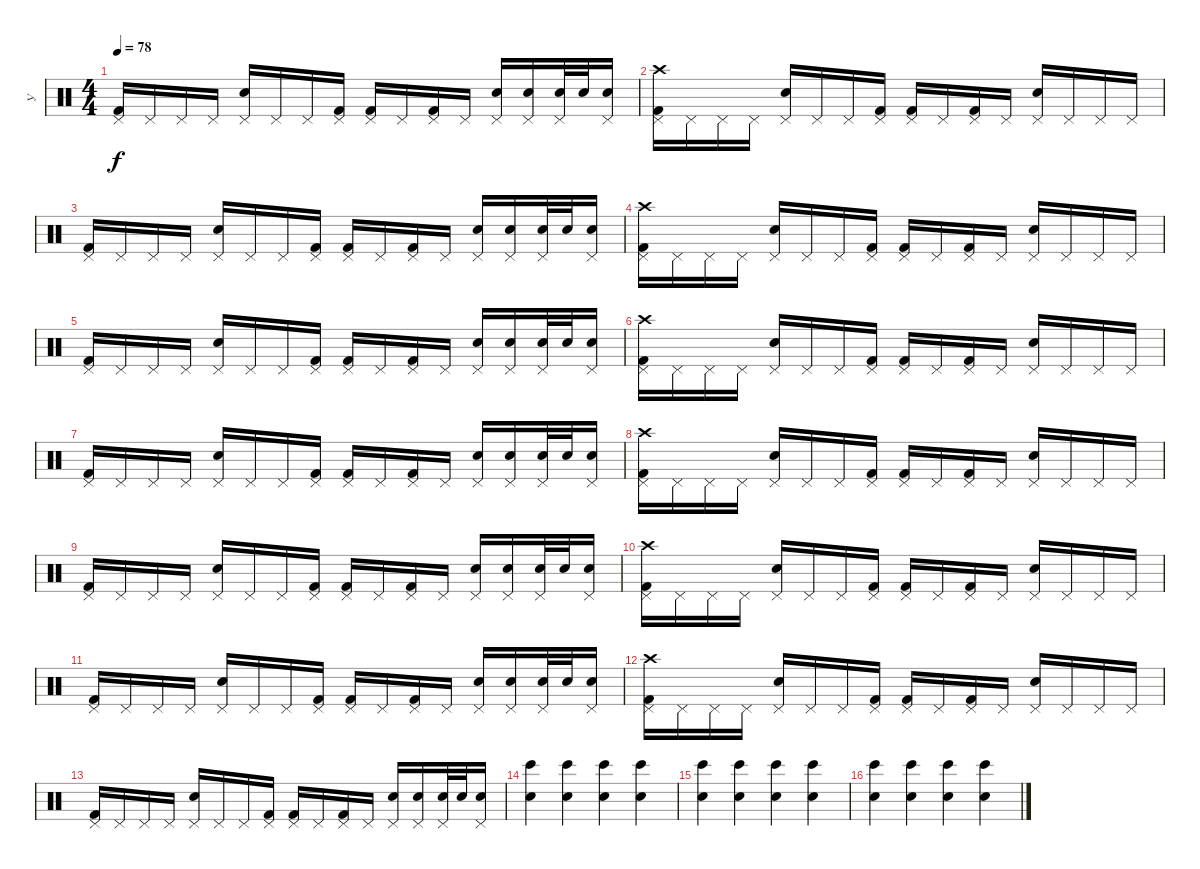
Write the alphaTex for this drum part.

\track ("У" "У") {instrument percussion}
\staff {score}
\articulation defaults
\ts (4 4)
\tempo 78
\clef neutral
\ks c
("Kick (hit) 2" "Pedal Hi-Hat (hit)").16{dy f} "Pedal Hi-Hat (hit)".16 "Pedal Hi-Hat (hit)".16 "Pedal Hi-Hat (hit)".16 ("Electric Snare (hit)" "Pedal Hi-Hat (hit)").16 "Pedal Hi-Hat (hit)".16 "Pedal Hi-Hat (hit)".16 ("Kick (hit) 2" "Pedal Hi-Hat (hit)").16 ("Kick (hit) 2" "Pedal Hi-Hat (hit)").16 "Pedal Hi-Hat (hit)".16 ("Kick (hit) 2" "Pedal Hi-Hat (hit)").16 "Pedal Hi-Hat (hit)".16 ("Electric Snare (hit)" "Pedal Hi-Hat (hit)").16 ("Electric Snare (hit)" "Pedal Hi-Hat (hit)").16 ("Electric Snare (hit)" "Pedal Hi-Hat (hit)").32 "Electric Snare (hit)".32 ("Electric Snare (hit)" "Pedal Hi-Hat (hit)").16 |
("Crash high (hit)" "Kick (hit) 2" "Pedal Hi-Hat (hit)").16{volume 13} "Pedal Hi-Hat (hit)".16 "Pedal Hi-Hat (hit)".16 "Pedal Hi-Hat (hit)".16 ("Electric Snare (hit)" "Pedal Hi-Hat (hit)").16 "Pedal Hi-Hat (hit)".16 "Pedal Hi-Hat (hit)".16 ("Kick (hit) 2" "Pedal Hi-Hat (hit)").16 ("Kick (hit) 2" "Pedal Hi-Hat (hit)").16 "Pedal Hi-Hat (hit)".16 ("Kick (hit) 2" "Pedal Hi-Hat (hit)").16 "Pedal Hi-Hat (hit)".16 ("Electric Snare (hit)" "Pedal Hi-Hat (hit)").16 "Pedal Hi-Hat (hit)".16 "Pedal Hi-Hat (hit)".16 "Pedal Hi-Hat (hit)".16 |
("Kick (hit) 2" "Pedal Hi-Hat (hit)").16 "Pedal Hi-Hat (hit)".16 "Pedal Hi-Hat (hit)".16 "Pedal Hi-Hat (hit)".16 ("Electric Snare (hit)" "Pedal Hi-Hat (hit)").16 "Pedal Hi-Hat (hit)".16 "Pedal Hi-Hat (hit)".16 ("Kick (hit) 2" "Pedal Hi-Hat (hit)").16 ("Kick (hit) 2" "Pedal Hi-Hat (hit)").16 "Pedal Hi-Hat (hit)".16 ("Kick (hit) 2" "Pedal Hi-Hat (hit)").16 "Pedal Hi-Hat (hit)".16 ("Electric Snare (hit)" "Pedal Hi-Hat (hit)").16 ("Electric Snare (hit)" "Pedal Hi-Hat (hit)").16 ("Electric Snare (hit)" "Pedal Hi-Hat (hit)").32 "Electric Snare (hit)".32 ("Electric Snare (hit)" "Pedal Hi-Hat (hit)").16 |
("Crash high (hit)" "Kick (hit) 2" "Pedal Hi-Hat (hit)").16 "Pedal Hi-Hat (hit)".16 "Pedal Hi-Hat (hit)".16 "Pedal Hi-Hat (hit)".16 ("Electric Snare (hit)" "Pedal Hi-Hat (hit)").16 "Pedal Hi-Hat (hit)".16 "Pedal Hi-Hat (hit)".16 ("Kick (hit) 2" "Pedal Hi-Hat (hit)").16 ("Kick (hit) 2" "Pedal Hi-Hat (hit)").16 "Pedal Hi-Hat (hit)".16 ("Kick (hit) 2" "Pedal Hi-Hat (hit)").16 "Pedal Hi-Hat (hit)".16 ("Electric Snare (hit)" "Pedal Hi-Hat (hit)").16 "Pedal Hi-Hat (hit)".16 "Pedal Hi-Hat (hit)".16 "Pedal Hi-Hat (hit)".16 |
("Kick (hit) 2" "Pedal Hi-Hat (hit)").16 "Pedal Hi-Hat (hit)".16 "Pedal Hi-Hat (hit)".16 "Pedal Hi-Hat (hit)".16 ("Electric Snare (hit)" "Pedal Hi-Hat (hit)").16 "Pedal Hi-Hat (hit)".16 "Pedal Hi-Hat (hit)".16 ("Kick (hit) 2" "Pedal Hi-Hat (hit)").16 ("Kick (hit) 2" "Pedal Hi-Hat (hit)").16 "Pedal Hi-Hat (hit)".16 ("Kick (hit) 2" "Pedal Hi-Hat (hit)").16 "Pedal Hi-Hat (hit)".16 ("Electric Snare (hit)" "Pedal Hi-Hat (hit)").16 ("Electric Snare (hit)" "Pedal Hi-Hat (hit)").16 ("Electric Snare (hit)" "Pedal Hi-Hat (hit)").32 "Electric Snare (hit)".32 ("Electric Snare (hit)" "Pedal Hi-Hat (hit)").16 |
("Crash high (hit)" "Kick (hit) 2" "Pedal Hi-Hat (hit)").16{volume 13} "Pedal Hi-Hat (hit)".16 "Pedal Hi-Hat (hit)".16 "Pedal Hi-Hat (hit)".16 ("Electric Snare (hit)" "Pedal Hi-Hat (hit)").16 "Pedal Hi-Hat (hit)".16 "Pedal Hi-Hat (hit)".16 ("Kick (hit) 2" "Pedal Hi-Hat (hit)").16 ("Kick (hit) 2" "Pedal Hi-Hat (hit)").16 "Pedal Hi-Hat (hit)".16 ("Kick (hit) 2" "Pedal Hi-Hat (hit)").16 "Pedal Hi-Hat (hit)".16 ("Electric Snare (hit)" "Pedal Hi-Hat (hit)").16 "Pedal Hi-Hat (hit)".16 "Pedal Hi-Hat (hit)".16 "Pedal Hi-Hat (hit)".16 |
("Kick (hit) 2" "Pedal Hi-Hat (hit)").16 "Pedal Hi-Hat (hit)".16 "Pedal Hi-Hat (hit)".16 "Pedal Hi-Hat (hit)".16 ("Electric Snare (hit)" "Pedal Hi-Hat (hit)").16 "Pedal Hi-Hat (hit)".16 "Pedal Hi-Hat (hit)".16 ("Kick (hit) 2" "Pedal Hi-Hat (hit)").16 ("Kick (hit) 2" "Pedal Hi-Hat (hit)").16 "Pedal Hi-Hat (hit)".16 ("Kick (hit) 2" "Pedal Hi-Hat (hit)").16 "Pedal Hi-Hat (hit)".16 ("Electric Snare (hit)" "Pedal Hi-Hat (hit)").16 ("Electric Snare (hit)" "Pedal Hi-Hat (hit)").16 ("Electric Snare (hit)" "Pedal Hi-Hat (hit)").32 "Electric Snare (hit)".32 ("Electric Snare (hit)" "Pedal Hi-Hat (hit)").16 |
("Crash high (hit)" "Kick (hit) 2" "Pedal Hi-Hat (hit)").16 "Pedal Hi-Hat (hit)".16 "Pedal Hi-Hat (hit)".16 "Pedal Hi-Hat (hit)".16 ("Electric Snare (hit)" "Pedal Hi-Hat (hit)").16 "Pedal Hi-Hat (hit)".16 "Pedal Hi-Hat (hit)".16 ("Kick (hit) 2" "Pedal Hi-Hat (hit)").16 ("Kick (hit) 2" "Pedal Hi-Hat (hit)").16 "Pedal Hi-Hat (hit)".16 ("Kick (hit) 2" "Pedal Hi-Hat (hit)").16 "Pedal Hi-Hat (hit)".16 ("Electric Snare (hit)" "Pedal Hi-Hat (hit)").16 "Pedal Hi-Hat (hit)".16 "Pedal Hi-Hat (hit)".16 "Pedal Hi-Hat (hit)".16 |
("Kick (hit) 2" "Pedal Hi-Hat (hit)").16 "Pedal Hi-Hat (hit)".16 "Pedal Hi-Hat (hit)".16 "Pedal Hi-Hat (hit)".16 ("Electric Snare (hit)" "Pedal Hi-Hat (hit)").16 "Pedal Hi-Hat (hit)".16 "Pedal Hi-Hat (hit)".16 ("Kick (hit) 2" "Pedal Hi-Hat (hit)").16 ("Kick (hit) 2" "Pedal Hi-Hat (hit)").16 "Pedal Hi-Hat (hit)".16 ("Kick (hit) 2" "Pedal Hi-Hat (hit)").16 "Pedal Hi-Hat (hit)".16 ("Electric Snare (hit)" "Pedal Hi-Hat (hit)").16 ("Electric Snare (hit)" "Pedal Hi-Hat (hit)").16 ("Electric Snare (hit)" "Pedal Hi-Hat (hit)").32 "Electric Snare (hit)".32 ("Electric Snare (hit)" "Pedal Hi-Hat (hit)").16 |
("Crash high (hit)" "Kick (hit) 2" "Pedal Hi-Hat (hit)").16 "Pedal Hi-Hat (hit)".16 "Pedal Hi-Hat (hit)".16 "Pedal Hi-Hat (hit)".16 ("Electric Snare (hit)" "Pedal Hi-Hat (hit)").16 "Pedal Hi-Hat (hit)".16 "Pedal Hi-Hat (hit)".16 ("Kick (hit) 2" "Pedal Hi-Hat (hit)").16 ("Kick (hit) 2" "Pedal Hi-Hat (hit)").16 "Pedal Hi-Hat (hit)".16 ("Kick (hit) 2" "Pedal Hi-Hat (hit)").16 "Pedal Hi-Hat (hit)".16 ("Electric Snare (hit)" "Pedal Hi-Hat (hit)").16 "Pedal Hi-Hat (hit)".16 "Pedal Hi-Hat (hit)".16 "Pedal Hi-Hat (hit)".16 |
("Kick (hit) 2" "Pedal Hi-Hat (hit)").16 "Pedal Hi-Hat (hit)".16 "Pedal Hi-Hat (hit)".16 "Pedal Hi-Hat (hit)".16 ("Electric Snare (hit)" "Pedal Hi-Hat (hit)").16 "Pedal Hi-Hat (hit)".16 "Pedal Hi-Hat (hit)".16 ("Kick (hit) 2" "Pedal Hi-Hat (hit)").16 ("Kick (hit) 2" "Pedal Hi-Hat (hit)").16 "Pedal Hi-Hat (hit)".16 ("Kick (hit) 2" "Pedal Hi-Hat (hit)").16 "Pedal Hi-Hat (hit)".16 ("Electric Snare (hit)" "Pedal Hi-Hat (hit)").16 ("Electric Snare (hit)" "Pedal Hi-Hat (hit)").16 ("Electric Snare (hit)" "Pedal Hi-Hat (hit)").32 "Electric Snare (hit)".32 ("Electric Snare (hit)" "Pedal Hi-Hat (hit)").16 |
("Crash high (hit)" "Kick (hit) 2" "Pedal Hi-Hat (hit)").16 "Pedal Hi-Hat (hit)".16 "Pedal Hi-Hat (hit)".16 "Pedal Hi-Hat (hit)".16 ("Electric Snare (hit)" "Pedal Hi-Hat (hit)").16 "Pedal Hi-Hat (hit)".16 "Pedal Hi-Hat (hit)".16 ("Kick (hit) 2" "Pedal Hi-Hat (hit)").16 ("Kick (hit) 2" "Pedal Hi-Hat (hit)").16 "Pedal Hi-Hat (hit)".16 ("Kick (hit) 2" "Pedal Hi-Hat (hit)").16 "Pedal Hi-Hat (hit)".16 ("Electric Snare (hit)" "Pedal Hi-Hat (hit)").16 "Pedal Hi-Hat (hit)".16 "Pedal Hi-Hat (hit)".16 "Pedal Hi-Hat (hit)".16 |
("Kick (hit) 2" "Pedal Hi-Hat (hit)").16 "Pedal Hi-Hat (hit)".16 "Pedal Hi-Hat (hit)".16 "Pedal Hi-Hat (hit)".16 ("Electric Snare (hit)" "Pedal Hi-Hat (hit)").16 "Pedal Hi-Hat (hit)".16 "Pedal Hi-Hat (hit)".16 ("Kick (hit) 2" "Pedal Hi-Hat (hit)").16 ("Kick (hit) 2" "Pedal Hi-Hat (hit)").16 "Pedal Hi-Hat (hit)".16 ("Kick (hit) 2" "Pedal Hi-Hat (hit)").16 "Pedal Hi-Hat (hit)".16 ("Electric Snare (hit)" "Pedal Hi-Hat (hit)").16 ("Electric Snare (hit)" "Pedal Hi-Hat (hit)").16 ("Electric Snare (hit)" "Pedal Hi-Hat (hit)").32 "Electric Snare (hit)".32 ("Electric Snare (hit)" "Pedal Hi-Hat (hit)").16 |
("Bongo High (hit)" "Hand Clap (hit)").4 ("Bongo High (hit)" "Hand Clap (hit)").4 ("Bongo High (hit)" "Hand Clap (hit)").4 ("Bongo High (hit)" "Hand Clap (hit)").4 |
("Bongo High (hit)" "Hand Clap (hit)").4 ("Bongo High (hit)" "Hand Clap (hit)").4 ("Bongo High (hit)" "Hand Clap (hit)").4 ("Bongo High (hit)" "Hand Clap (hit)").4 |
("Bongo High (hit)" "Hand Clap (hit)").4 ("Bongo High (hit)" "Hand Clap (hit)").4 ("Bongo High (hit)" "Hand Clap (hit)").4 ("Bongo High (hit)" "Hand Clap (hit)").4
